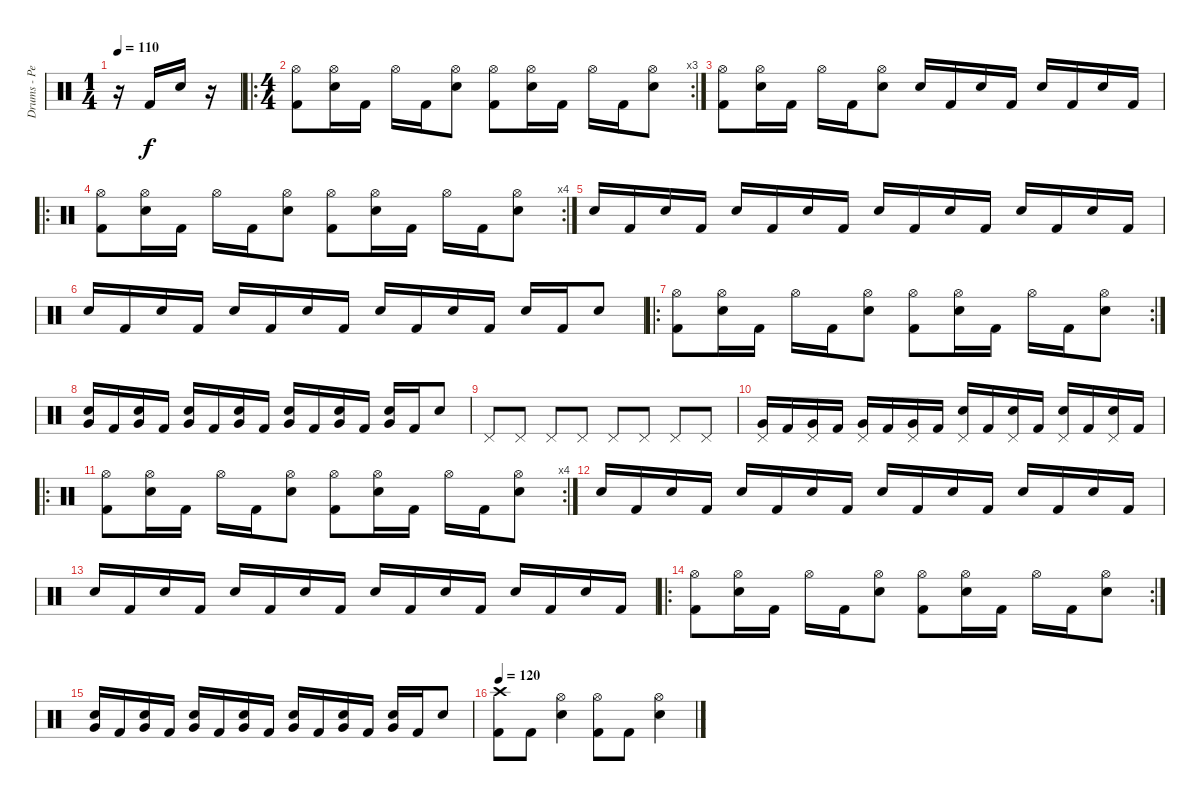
\track ("Drums - Pete Finestone" "Drums - Pe") {instrument percussion}
\staff {score}
\articulation defaults
\ts (1 4)
\tempo 110
\clef neutral
\ks c
r.16{dy f} "Kick (hit) 2".16 "Electric Snare (hit)".16 r.16 |
\ro
\rc 3
\ts (4 4)
("Hi-Hat (open)" "Kick (hit) 2").8 ("Hi-Hat (open)" "Electric Snare (hit)").16 "Kick (hit) 2".16 "Hi-Hat (open)".16 "Kick (hit) 2".16 ("Hi-Hat (open)" "Electric Snare (hit)").8 ("Hi-Hat (open)" "Kick (hit) 2").8 ("Hi-Hat (open)" "Electric Snare (hit)").16 "Kick (hit) 2".16 "Hi-Hat (open)".16 "Kick (hit) 2".16 ("Hi-Hat (open)" "Electric Snare (hit)").8 |
("Hi-Hat (open)" "Kick (hit) 2").8 ("Hi-Hat (open)" "Electric Snare (hit)").16 "Kick (hit) 2".16 "Hi-Hat (open)".16 "Kick (hit) 2".16 ("Hi-Hat (open)" "Electric Snare (hit)").8 "Electric Snare (hit)".16 "Kick (hit) 2".16 "Electric Snare (hit)".16 "Kick (hit) 2".16 "Electric Snare (hit)".16 "Kick (hit) 2".16 "Electric Snare (hit)".16 "Kick (hit) 2".16 |
\ro
\rc 4
("Hi-Hat (open)" "Kick (hit) 2").8 ("Hi-Hat (open)" "Electric Snare (hit)").16 "Kick (hit) 2".16 "Hi-Hat (open)".16 "Kick (hit) 2".16 ("Hi-Hat (open)" "Electric Snare (hit)").8 ("Hi-Hat (open)" "Kick (hit) 2").8 ("Hi-Hat (open)" "Electric Snare (hit)").16 "Kick (hit) 2".16 "Hi-Hat (open)".16 "Kick (hit) 2".16 ("Hi-Hat (open)" "Electric Snare (hit)").8 |
"Electric Snare (hit)".16 "Kick (hit) 2".16 "Electric Snare (hit)".16 "Kick (hit) 2".16 "Electric Snare (hit)".16 "Kick (hit) 2".16 "Electric Snare (hit)".16 "Kick (hit) 2".16 "Electric Snare (hit)".16 "Kick (hit) 2".16 "Electric Snare (hit)".16 "Kick (hit) 2".16 "Electric Snare (hit)".16 "Kick (hit) 2".16 "Electric Snare (hit)".16 "Kick (hit) 2".16 |
"Electric Snare (hit)".16 "Kick (hit) 2".16 "Electric Snare (hit)".16 "Kick (hit) 2".16 "Electric Snare (hit)".16 "Kick (hit) 2".16 "Electric Snare (hit)".16 "Kick (hit) 2".16 "Electric Snare (hit)".16 "Kick (hit) 2".16 "Electric Snare (hit)".16 "Kick (hit) 2".16 "Electric Snare (hit)".16 "Kick (hit) 2".16 "Electric Snare (hit)".8 |
\ro
\rc 2
("Hi-Hat (open)" "Kick (hit) 2").8 ("Hi-Hat (open)" "Electric Snare (hit)").16 "Kick (hit) 2".16 "Hi-Hat (open)".16 "Kick (hit) 2".16 ("Hi-Hat (open)" "Electric Snare (hit)").8 ("Hi-Hat (open)" "Kick (hit) 2").8 ("Hi-Hat (open)" "Electric Snare (hit)").16 "Kick (hit) 2".16 "Hi-Hat (open)".16 "Kick (hit) 2".16 ("Hi-Hat (open)" "Electric Snare (hit)").8 |
("Very Low Tom (hit)" "Electric Snare (hit)").16 "Kick (hit) 2".16 ("Very Low Tom (hit)" "Electric Snare (hit)").16 "Kick (hit) 2".16 ("Very Low Tom (hit)" "Electric Snare (hit)").16 "Kick (hit) 2".16 ("Very Low Tom (hit)" "Electric Snare (hit)").16 "Kick (hit) 2".16 ("Very Low Tom (hit)" "Electric Snare (hit)").16 "Kick (hit) 2".16 ("Very Low Tom (hit)" "Electric Snare (hit)").16 "Kick (hit) 2".16 ("Very Low Tom (hit)" "Electric Snare (hit)").16 "Kick (hit) 2".16 "Electric Snare (hit)".8 |
"Pedal Hi-Hat (hit)".8 "Pedal Hi-Hat (hit)".8 "Pedal Hi-Hat (hit)".8 "Pedal Hi-Hat (hit)".8 "Pedal Hi-Hat (hit)".8 "Pedal Hi-Hat (hit)".8 "Pedal Hi-Hat (hit)".8 "Pedal Hi-Hat (hit)".8 |
("Very Low Tom (hit)" "Pedal Hi-Hat (hit)").16 "Kick (hit) 2".16 ("Very Low Tom (hit)" "Pedal Hi-Hat (hit)").16 "Kick (hit) 2".16 ("Very Low Tom (hit)" "Pedal Hi-Hat (hit)").16 "Kick (hit) 2".16 ("Very Low Tom (hit)" "Pedal Hi-Hat (hit)").16 "Kick (hit) 2".16 ("Pedal Hi-Hat (hit)" "Electric Snare (hit)").16 "Kick (hit) 2".16 ("Pedal Hi-Hat (hit)" "Electric Snare (hit)").16 "Kick (hit) 2".16 ("Pedal Hi-Hat (hit)" "Electric Snare (hit)").16 "Kick (hit) 2".16 ("Pedal Hi-Hat (hit)" "Electric Snare (hit)").16 "Kick (hit) 2".16 |
\ro
\rc 4
("Hi-Hat (open)" "Kick (hit) 2").8 ("Hi-Hat (open)" "Electric Snare (hit)").16 "Kick (hit) 2".16 "Hi-Hat (open)".16 "Kick (hit) 2".16 ("Hi-Hat (open)" "Electric Snare (hit)").8 ("Hi-Hat (open)" "Kick (hit) 2").8 ("Hi-Hat (open)" "Electric Snare (hit)").16 "Kick (hit) 2".16 "Hi-Hat (open)".16 "Kick (hit) 2".16 ("Hi-Hat (open)" "Electric Snare (hit)").8 |
"Electric Snare (hit)".16 "Kick (hit) 2".16 "Electric Snare (hit)".16 "Kick (hit) 2".16 "Electric Snare (hit)".16 "Kick (hit) 2".16 "Electric Snare (hit)".16 "Kick (hit) 2".16 "Electric Snare (hit)".16 "Kick (hit) 2".16 "Electric Snare (hit)".16 "Kick (hit) 2".16 "Electric Snare (hit)".16 "Kick (hit) 2".16 "Electric Snare (hit)".16 "Kick (hit) 2".16 |
"Electric Snare (hit)".16 "Kick (hit) 2".16 "Electric Snare (hit)".16 "Kick (hit) 2".16 "Electric Snare (hit)".16 "Kick (hit) 2".16 "Electric Snare (hit)".16 "Kick (hit) 2".16 "Electric Snare (hit)".16 "Kick (hit) 2".16 "Electric Snare (hit)".16 "Kick (hit) 2".16 "Electric Snare (hit)".16 "Kick (hit) 2".16 "Electric Snare (hit)".16 "Kick (hit) 2".16 |
\ro
\rc 2
("Hi-Hat (open)" "Kick (hit) 2").8 ("Hi-Hat (open)" "Electric Snare (hit)").16 "Kick (hit) 2".16 "Hi-Hat (open)".16 "Kick (hit) 2".16 ("Hi-Hat (open)" "Electric Snare (hit)").8 ("Hi-Hat (open)" "Kick (hit) 2").8 ("Hi-Hat (open)" "Electric Snare (hit)").16 "Kick (hit) 2".16 "Hi-Hat (open)".16 "Kick (hit) 2".16 ("Hi-Hat (open)" "Electric Snare (hit)").8 |
("Very Low Tom (hit)" "Electric Snare (hit)").16 "Kick (hit) 2".16 ("Very Low Tom (hit)" "Electric Snare (hit)").16 "Kick (hit) 2".16 ("Very Low Tom (hit)" "Electric Snare (hit)").16 "Kick (hit) 2".16 ("Very Low Tom (hit)" "Electric Snare (hit)").16 "Kick (hit) 2".16 ("Very Low Tom (hit)" "Electric Snare (hit)").16 "Kick (hit) 2".16 ("Very Low Tom (hit)" "Electric Snare (hit)").16 "Kick (hit) 2".16 ("Very Low Tom (hit)" "Electric Snare (hit)").16 "Kick (hit) 2".16 "Electric Snare (hit)".8 |
\tempo 120
("Crash high (hit)" "Kick (hit) 2").8 "Kick (hit) 2".8 ("Hi-Hat (open)" "Electric Snare (hit)").4 ("Hi-Hat (open)" "Kick (hit) 2").8 "Kick (hit) 2".8 ("Hi-Hat (open)" "Electric Snare (hit)").4
